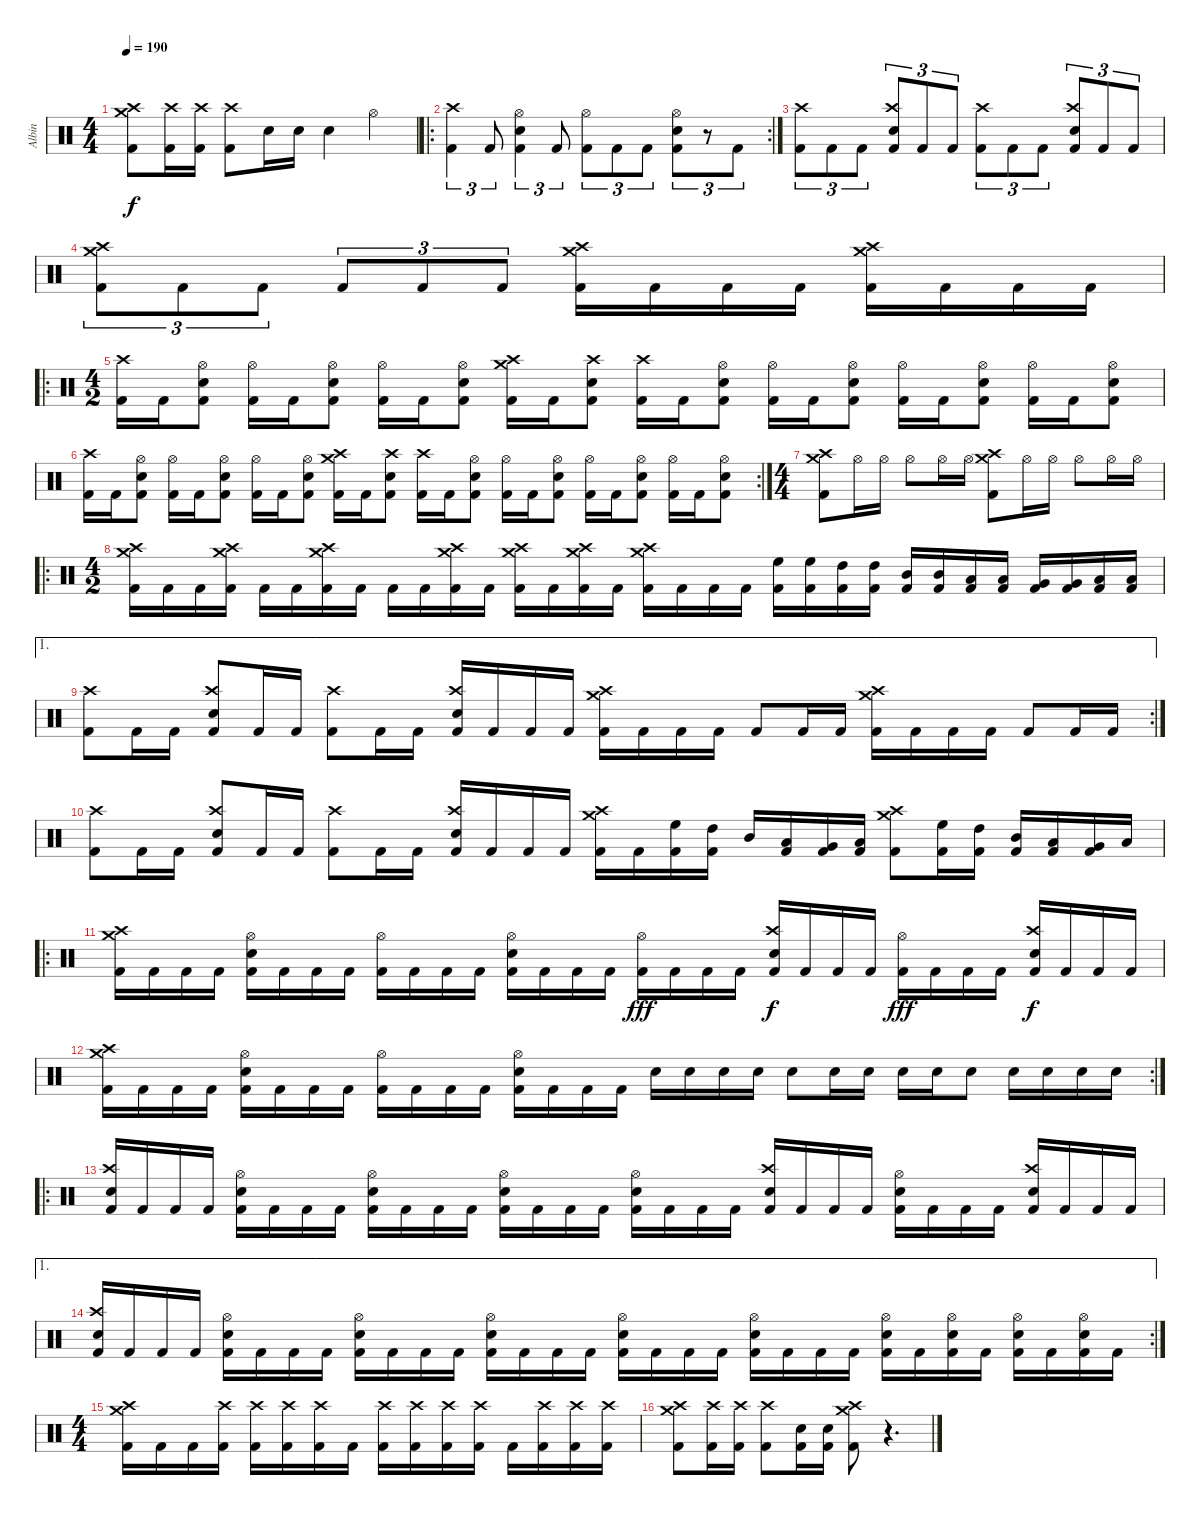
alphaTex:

\track ("Albin" "Albin") {instrument percussion}
\staff {score}
\articulation defaults
\ts (4 4)
\tempo 190
\clef neutral
\ks c
("Kick (hit) 2" "Crash high (hit)" "Crash medium (hit)").8{dy f} ("Kick (hit) 2" "Crash high (hit)").16 ("Kick (hit) 2" "Crash high (hit)").16 ("Kick (hit) 2" "Crash high (hit)").8 "Electric Snare (hit)".16 "Electric Snare (hit)".16 "Electric Snare (hit)".4 "Hi-Hat (open)".4 |
\ro
\rc 2
("Kick (hit) 2" "Crash high (hit)").4{tu (3 2)} "Kick (hit) 2".8{tu (3 2)} ("Kick (hit) 2" "Electric Snare (hit)" "Hi-Hat (open)").4{tu (3 2)} "Kick (hit) 2".8{tu (3 2)} ("Kick (hit) 2" "Hi-Hat (open)").8{tu (3 2)} "Kick (hit) 2".8{tu (3 2)} "Kick (hit) 2".8{tu (3 2)} ("Kick (hit) 2" "Electric Snare (hit)" "Hi-Hat (open)").8{tu (3 2)} r.8{tu (3 2)} "Kick (hit) 2".8{tu (3 2)} |
("Kick (hit) 2" "Crash high (hit)").8{tu (3 2)} "Kick (hit) 2".8{tu (3 2)} "Kick (hit) 2".8{tu (3 2)} ("Kick (hit) 2" "Electric Snare (hit)" "Crash high (hit)").8{tu (3 2)} "Kick (hit) 2".8{tu (3 2)} "Kick (hit) 2".8{tu (3 2)} ("Kick (hit) 2" "Crash high (hit)").8{tu (3 2)} "Kick (hit) 2".8{tu (3 2)} "Kick (hit) 2".8{tu (3 2)} ("Kick (hit) 2" "Electric Snare (hit)" "Crash high (hit)").8{tu (3 2)} "Kick (hit) 2".8{tu (3 2)} "Kick (hit) 2".8{tu (3 2)} |
("Kick (hit) 2" "Crash high (hit)" "Crash medium (hit)").8{tu (3 2)} "Kick (hit) 2".8{tu (3 2)} "Kick (hit) 2".8{tu (3 2)} "Kick (hit) 2".8{tu (3 2)} "Kick (hit) 2".8{tu (3 2)} "Kick (hit) 2".8{tu (3 2)} ("Kick (hit) 2" "Crash high (hit)" "Crash medium (hit)").16 "Kick (hit) 2".16 "Kick (hit) 2".16 "Kick (hit) 2".16 ("Kick (hit) 2" "Crash medium (hit)" "Crash high (hit)").16 "Kick (hit) 2".16 "Kick (hit) 2".16 "Kick (hit) 2".16 |
\ro
\ts (4 2)
("Kick (hit) 2" "Crash high (hit)").16 "Kick (hit) 2".16 ("Kick (hit) 2" "Electric Snare (hit)" "Hi-Hat (open)").8 ("Kick (hit) 2" "Hi-Hat (open)").16 "Kick (hit) 2".16 ("Kick (hit) 2" "Electric Snare (hit)" "Hi-Hat (open)").8 ("Kick (hit) 2" "Hi-Hat (open)").16 "Kick (hit) 2".16 ("Kick (hit) 2" "Electric Snare (hit)" "Hi-Hat (open)").8 ("Kick (hit) 2" "Crash high (hit)" "Crash medium (hit)").16 "Kick (hit) 2".16 ("Kick (hit) 2" "Electric Snare (hit)" "Crash high (hit)").8 ("Kick (hit) 2" "Crash high (hit)").16 "Kick (hit) 2".16 ("Kick (hit) 2" "Electric Snare (hit)" "Hi-Hat (open)").8 ("Kick (hit) 2" "Hi-Hat (open)").16 "Kick (hit) 2".16 ("Kick (hit) 2" "Electric Snare (hit)" "Hi-Hat (open)").8 ("Kick (hit) 2" "Hi-Hat (open)").16 "Kick (hit) 2".16 ("Kick (hit) 2" "Electric Snare (hit)" "Hi-Hat (open)").8 ("Kick (hit) 2" "Hi-Hat (open)").16 "Kick (hit) 2".16 ("Kick (hit) 2" "Electric Snare (hit)" "Hi-Hat (open)").8 |
\rc 2
("Kick (hit) 2" "Crash high (hit)").16 "Kick (hit) 2".16 ("Kick (hit) 2" "Electric Snare (hit)" "Hi-Hat (open)").8 ("Kick (hit) 2" "Hi-Hat (open)").16 "Kick (hit) 2".16 ("Kick (hit) 2" "Electric Snare (hit)" "Hi-Hat (open)").8 ("Kick (hit) 2" "Hi-Hat (open)").16 "Kick (hit) 2".16 ("Kick (hit) 2" "Electric Snare (hit)" "Hi-Hat (open)").8 ("Kick (hit) 2" "Crash high (hit)" "Crash medium (hit)").16 "Kick (hit) 2".16 ("Kick (hit) 2" "Electric Snare (hit)" "Crash high (hit)").8 ("Kick (hit) 2" "Crash high (hit)").16 "Kick (hit) 2".16 ("Kick (hit) 2" "Electric Snare (hit)" "Hi-Hat (open)").8 ("Kick (hit) 2" "Hi-Hat (open)").16 "Kick (hit) 2".16 ("Kick (hit) 2" "Electric Snare (hit)" "Hi-Hat (open)").8 ("Kick (hit) 2" "Hi-Hat (open)").16 "Kick (hit) 2".16 ("Kick (hit) 2" "Electric Snare (hit)" "Hi-Hat (open)").8 ("Kick (hit) 2" "Hi-Hat (open)").16 "Kick (hit) 2".16 ("Kick (hit) 2" "Electric Snare (hit)" "Hi-Hat (open)").8 |
\ts (4 4)
("Kick (hit) 2" "Crash high (hit)" "Crash medium (hit)").8 "Hi-Hat (open)".16 "Hi-Hat (open)".16 "Hi-Hat (open)".8 "Hi-Hat (open)".16 "Hi-Hat (open)".16 ("Kick (hit) 2" "Crash high (hit)" "Crash medium (hit)").8 "Hi-Hat (open)".16 "Hi-Hat (open)".16 "Hi-Hat (open)".8 "Hi-Hat (open)".16 "Hi-Hat (open)".16 |
\ro
\ts (4 2)
("Kick (hit) 2" "Crash high (hit)" "Crash medium (hit)").16 "Kick (hit) 2".16 "Kick (hit) 2".16 ("Kick (hit) 2" "Crash medium (hit)" "Crash high (hit)").16 "Kick (hit) 2".16 "Kick (hit) 2".16 ("Kick (hit) 2" "Crash high (hit)" "Crash medium (hit)").16 "Kick (hit) 2".16 "Kick (hit) 2".16 "Kick (hit) 2".16 ("Kick (hit) 2" "Crash medium (hit)" "Crash high (hit)").16 "Kick (hit) 2".16 ("Kick (hit) 2" "Crash high (hit)" "Crash medium (hit)").16 "Kick (hit) 2".16 ("Kick (hit) 2" "Crash medium (hit)" "Crash high (hit)").16 "Kick (hit) 2".16 ("Kick (hit) 2" "Crash high (hit)" "Crash medium (hit)").16 "Kick (hit) 2".16 "Kick (hit) 2".16 "Kick (hit) 2".16 ("Kick (hit) 2" "High Floor Tom (hit)").16 ("Kick (hit) 2" "High Floor Tom (hit)").16 ("Kick (hit) 2" "High Tom (hit)").16 ("Kick (hit) 2" "High Tom (hit)").16 ("Kick (hit) 2" "Mid Tom (hit)").16 ("Kick (hit) 2" "Mid Tom (hit)").16 ("Kick (hit) 2" "Low Tom (hit)").16 ("Kick (hit) 2" "Low Tom (hit)").16 ("Kick (hit) 2" "Very Low Tom (hit)").16 ("Kick (hit) 2" "Very Low Tom (hit)").16 ("Kick (hit) 2" "Low Floor Tom (hit)").16 ("Kick (hit) 2" "Low Floor Tom (hit)").16 |
\ae 1
\rc 2
("Kick (hit) 2" "Crash high (hit)").8 "Kick (hit) 2".16 "Kick (hit) 2".16 ("Kick (hit) 2" "Electric Snare (hit)" "Crash high (hit)").8 "Kick (hit) 2".16 "Kick (hit) 2".16 ("Kick (hit) 2" "Crash high (hit)").8 "Kick (hit) 2".16 "Kick (hit) 2".16 ("Kick (hit) 2" "Electric Snare (hit)" "Crash high (hit)").16 "Kick (hit) 2".16 "Kick (hit) 2".16 "Kick (hit) 2".16 ("Kick (hit) 2" "Crash high (hit)" "Crash medium (hit)").16 "Kick (hit) 2".16 "Kick (hit) 2".16 "Kick (hit) 2".16 "Kick (hit) 2".8 "Kick (hit) 2".16 "Kick (hit) 2".16 ("Kick (hit) 2" "Crash high (hit)" "Crash medium (hit)").16 "Kick (hit) 2".16 "Kick (hit) 2".16 "Kick (hit) 2".16 "Kick (hit) 2".8 "Kick (hit) 2".16 "Kick (hit) 2".16 |
("Kick (hit) 2" "Crash high (hit)").8 "Kick (hit) 2".16 "Kick (hit) 2".16 ("Kick (hit) 2" "Electric Snare (hit)" "Crash high (hit)").8 "Kick (hit) 2".16 "Kick (hit) 2".16 ("Kick (hit) 2" "Crash high (hit)").8 "Kick (hit) 2".16 "Kick (hit) 2".16 ("Kick (hit) 2" "Electric Snare (hit)" "Crash high (hit)").16 "Kick (hit) 2".16 "Kick (hit) 2".16 "Kick (hit) 2".16 ("Kick (hit) 2" "Crash high (hit)" "Crash medium (hit)").16 "Kick (hit) 2".16 ("Kick (hit) 2" "High Floor Tom (hit)").16 ("Kick (hit) 2" "High Tom (hit)").16 "Mid Tom (hit)".16 ("Kick (hit) 2" "Low Tom (hit)").16 ("Kick (hit) 2" "Very Low Tom (hit)").16 ("Kick (hit) 2" "Low Floor Tom (hit)").16 ("Kick (hit) 2" "Crash high (hit)" "Crash medium (hit)").8 ("Kick (hit) 2" "High Floor Tom (hit)").16 ("Kick (hit) 2" "High Tom (hit)").16 ("Kick (hit) 2" "Mid Tom (hit)").16 ("Kick (hit) 2" "Low Tom (hit)").16 ("Kick (hit) 2" "Very Low Tom (hit)").16 "Low Floor Tom (hit)".16 |
\ro
("Kick (hit) 2" "Crash high (hit)" "Crash medium (hit)").16 "Kick (hit) 2".16 "Kick (hit) 2".16 "Kick (hit) 2".16 ("Kick (hit) 2" "Electric Snare (hit)" "Hi-Hat (open)").16 "Kick (hit) 2".16 "Kick (hit) 2".16 "Kick (hit) 2".16 ("Kick (hit) 2" "Hi-Hat (open)").16 "Kick (hit) 2".16 "Kick (hit) 2".16 "Kick (hit) 2".16 ("Kick (hit) 2" "Electric Snare (hit)" "Hi-Hat (open)").16 "Kick (hit) 2".16 "Kick (hit) 2".16 "Kick (hit) 2".16 ("Kick (hit) 2" "Hi-Hat (open)").16{dy fff} "Kick (hit) 2".16 "Kick (hit) 2".16 "Kick (hit) 2".16 ("Kick (hit) 2" "Electric Snare (hit)" "Crash high (hit)").16{dy f} "Kick (hit) 2".16 "Kick (hit) 2".16 "Kick (hit) 2".16 ("Kick (hit) 2" "Hi-Hat (open)").16{dy fff} "Kick (hit) 2".16 "Kick (hit) 2".16 "Kick (hit) 2".16 ("Kick (hit) 2" "Electric Snare (hit)" "Crash high (hit)").16{dy f} "Kick (hit) 2".16 "Kick (hit) 2".16 "Kick (hit) 2".16 |
\rc 2
("Kick (hit) 2" "Crash high (hit)" "Crash medium (hit)").16 "Kick (hit) 2".16 "Kick (hit) 2".16 "Kick (hit) 2".16 ("Kick (hit) 2" "Electric Snare (hit)" "Hi-Hat (open)").16 "Kick (hit) 2".16 "Kick (hit) 2".16 "Kick (hit) 2".16 ("Kick (hit) 2" "Hi-Hat (open)").16 "Kick (hit) 2".16 "Kick (hit) 2".16 "Kick (hit) 2".16 ("Kick (hit) 2" "Electric Snare (hit)" "Hi-Hat (open)").16 "Kick (hit) 2".16 "Kick (hit) 2".16 "Kick (hit) 2".16 "Electric Snare (hit)".16 "Electric Snare (hit)".16 "Electric Snare (hit)".16 "Electric Snare (hit)".16 "Electric Snare (hit)".8 "Electric Snare (hit)".16 "Electric Snare (hit)".16 "Electric Snare (hit)".16 "Electric Snare (hit)".16 "Electric Snare (hit)".8 "Electric Snare (hit)".16 "Electric Snare (hit)".16 "Electric Snare (hit)".16 "Electric Snare (hit)".16 |
\ro
("Kick (hit) 2" "Electric Snare (hit)" "Crash high (hit)").16 "Kick (hit) 2".16 "Kick (hit) 2".16 "Kick (hit) 2".16 ("Kick (hit) 2" "Electric Snare (hit)" "Hi-Hat (open)").16 "Kick (hit) 2".16 "Kick (hit) 2".16 "Kick (hit) 2".16 ("Kick (hit) 2" "Electric Snare (hit)" "Hi-Hat (open)").16 "Kick (hit) 2".16 "Kick (hit) 2".16 "Kick (hit) 2".16 ("Kick (hit) 2" "Electric Snare (hit)" "Hi-Hat (open)").16 "Kick (hit) 2".16 "Kick (hit) 2".16 "Kick (hit) 2".16 ("Kick (hit) 2" "Electric Snare (hit)" "Hi-Hat (open)").16 "Kick (hit) 2".16 "Kick (hit) 2".16 "Kick (hit) 2".16 ("Kick (hit) 2" "Electric Snare (hit)" "Crash high (hit)").16 "Kick (hit) 2".16 "Kick (hit) 2".16 "Kick (hit) 2".16 ("Kick (hit) 2" "Electric Snare (hit)" "Hi-Hat (open)").16 "Kick (hit) 2".16 "Kick (hit) 2".16 "Kick (hit) 2".16 ("Kick (hit) 2" "Electric Snare (hit)" "Crash high (hit)").16 "Kick (hit) 2".16 "Kick (hit) 2".16 "Kick (hit) 2".16 |
\ae 1
\rc 2
("Kick (hit) 2" "Electric Snare (hit)" "Crash high (hit)").16 "Kick (hit) 2".16 "Kick (hit) 2".16 "Kick (hit) 2".16 ("Kick (hit) 2" "Electric Snare (hit)" "Hi-Hat (open)").16 "Kick (hit) 2".16 "Kick (hit) 2".16 "Kick (hit) 2".16 ("Kick (hit) 2" "Electric Snare (hit)" "Hi-Hat (open)").16 "Kick (hit) 2".16 "Kick (hit) 2".16 "Kick (hit) 2".16 ("Kick (hit) 2" "Electric Snare (hit)" "Hi-Hat (open)").16 "Kick (hit) 2".16 "Kick (hit) 2".16 "Kick (hit) 2".16 ("Kick (hit) 2" "Electric Snare (hit)" "Hi-Hat (open)").16 "Kick (hit) 2".16 "Kick (hit) 2".16 "Kick (hit) 2".16 ("Kick (hit) 2" "Electric Snare (hit)" "Hi-Hat (open)").16 "Kick (hit) 2".16 "Kick (hit) 2".16 "Kick (hit) 2".16 ("Kick (hit) 2" "Electric Snare (hit)" "Hi-Hat (open)").16 "Kick (hit) 2".16 ("Kick (hit) 2" "Electric Snare (hit)" "Hi-Hat (open)").16 "Kick (hit) 2".16 ("Kick (hit) 2" "Electric Snare (hit)" "Hi-Hat (open)").16 "Kick (hit) 2".16 ("Kick (hit) 2" "Electric Snare (hit)" "Hi-Hat (open)").16 "Kick (hit) 2".16 |
\ts (4 4)
("Kick (hit) 2" "Crash medium (hit)" "Crash high (hit)").16 "Kick (hit) 2".16 "Kick (hit) 2".16 ("Kick (hit) 2" "Crash high (hit)").16 ("Kick (hit) 2" "Crash high (hit)").16 ("Kick (hit) 2" "Crash high (hit)").16 ("Kick (hit) 2" "Crash high (hit)").16 "Kick (hit) 2".16 ("Kick (hit) 2" "Crash high (hit)").16 ("Kick (hit) 2" "Crash high (hit)").16 ("Kick (hit) 2" "Crash high (hit)").16 ("Kick (hit) 2" "Crash high (hit)").16 "Kick (hit) 2".16 ("Kick (hit) 2" "Crash high (hit)").16 ("Kick (hit) 2" "Crash high (hit)").16 ("Kick (hit) 2" "Crash high (hit)").16 |
("Kick (hit) 2" "Crash high (hit)" "Crash medium (hit)").8 ("Kick (hit) 2" "Crash high (hit)").16 ("Kick (hit) 2" "Crash high (hit)").16 ("Kick (hit) 2" "Crash high (hit)").8 ("Kick (hit) 2" "Electric Snare (hit)").16 ("Kick (hit) 2" "Electric Snare (hit)").16 ("Kick (hit) 2" "Crash high (hit)" "Crash medium (hit)").8 r.4{d}
